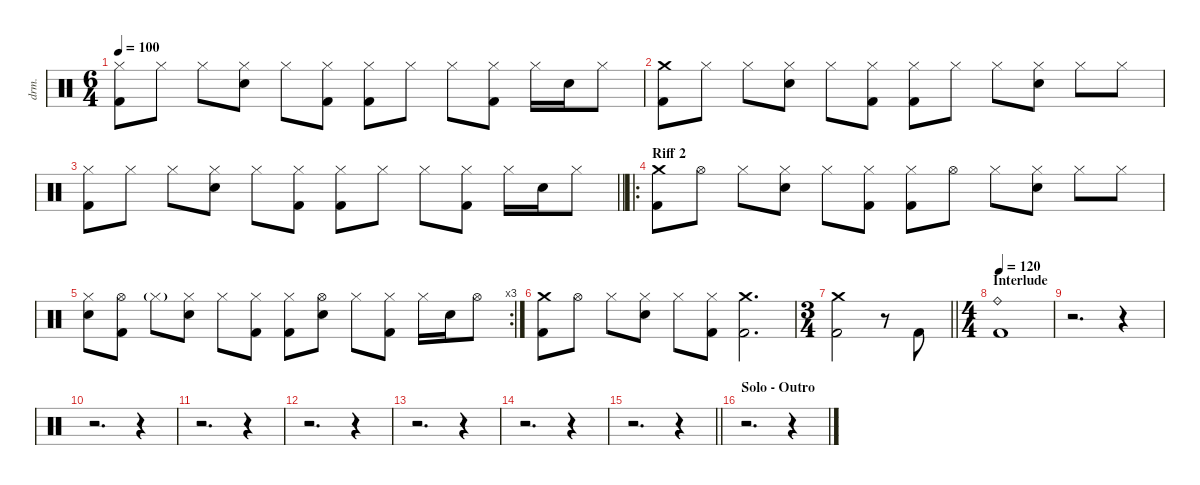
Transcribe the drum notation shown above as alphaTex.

\defaultSystemsLayout 4
\hideDynamics
\bracketExtendMode nobrackets
\otherSystemsTrackNameOrientation horizontal
\track ("Percussions" "drm.") {instrument percussion}
\staff {score}
\articulation defaults
\ts (6 4)
\tempo 100
\clef neutral
\ks c
("Hi-Hat (closed)" "Kick (hit) 2").8{dy f beam Down} "Hi-Hat (closed)".8{beam Down} "Hi-Hat (closed)".8{beam Down} ("Snare (hit) 2" "Hi-Hat (closed)").8{beam Down} "Hi-Hat (closed)".8{beam Down} ("Hi-Hat (closed)" "Kick (hit) 2").8{beam Down} ("Hi-Hat (closed)" "Kick (hit) 2").8{beam Down} "Hi-Hat (closed)".8{beam Down} "Hi-Hat (closed)".8{beam Down} ("Hi-Hat (closed)" "Kick (hit) 2").8{beam Down} "Hi-Hat (closed)".16{beam Down} "Snare (hit) 2".16{beam Down} "Hi-Hat (closed)".8{beam Down} |
("Crash medium (hit)" "Kick (hit) 2").8{beam Down} "Hi-Hat (closed)".8{beam Down} "Hi-Hat (closed)".8{beam Down} ("Snare (hit) 2" "Hi-Hat (closed)").8{beam Down} "Hi-Hat (closed)".8{beam Down} ("Hi-Hat (closed)" "Kick (hit) 2").8{beam Down} ("Hi-Hat (closed)" "Kick (hit) 2").8{beam Down} "Hi-Hat (closed)".8{beam Down} "Hi-Hat (closed)".8{beam Down} ("Snare (hit) 2" "Hi-Hat (closed)").8{beam Down} "Hi-Hat (closed)".8{beam Down} "Hi-Hat (closed)".8{beam Down} |
\barLineRight lightlight
("Hi-Hat (closed)" "Kick (hit) 2").8{beam Down} "Hi-Hat (closed)".8{beam Down} "Hi-Hat (closed)".8{beam Down} ("Snare (hit) 2" "Hi-Hat (closed)").8{beam Down} "Hi-Hat (closed)".8{beam Down} ("Hi-Hat (closed)" "Kick (hit) 2").8{beam Down} ("Hi-Hat (closed)" "Kick (hit) 2").8{beam Down} "Hi-Hat (closed)".8{beam Down} "Hi-Hat (closed)".8{beam Down} ("Hi-Hat (closed)" "Kick (hit) 2").8{beam Down} "Hi-Hat (closed)".16{beam Down} "Snare (hit) 2".16{beam Down} "Hi-Hat (closed)".8{beam Down} |
\ro
\section ("" "Riff 2")
("Crash medium (hit)" "Kick (hit) 2").8{beam Down} "Hi-Hat (open)".8{beam Down} "Hi-Hat (closed)".8{beam Down} ("Snare (hit) 2" "Hi-Hat (closed)").8{beam Down} "Hi-Hat (closed)".8{beam Down} ("Hi-Hat (closed)" "Kick (hit) 2").8{beam Down} ("Hi-Hat (closed)" "Kick (hit) 2").8{beam Down} "Hi-Hat (open)".8{beam Down} "Hi-Hat (closed)".8{beam Down} ("Snare (hit) 2" "Hi-Hat (closed)").8{beam Down} "Hi-Hat (closed)".8{beam Down} "Hi-Hat (closed)".8{beam Down} |
\rc 3
("Snare (hit) 2" "Hi-Hat (closed)").8{beam Down} ("Kick (hit) 2" "Hi-Hat (open)").8{beam Down} "Hi-Hat (closed)"{g}.8{dy mf beam Down} ("Snare (hit) 2" "Hi-Hat (closed)").8{dy f beam Down} "Hi-Hat (closed)".8{beam Down} ("Kick (hit) 2" "Hi-Hat (closed)").8{beam Down} ("Kick (hit) 2" "Hi-Hat (closed)").8{beam Down} ("Snare (hit) 2" "Hi-Hat (open)").8{beam Down} "Hi-Hat (closed)".8{beam Down} ("Kick (hit) 2" "Hi-Hat (closed)").8{beam Down} "Hi-Hat (closed)".16{beam Down} "Snare (hit) 2".16{beam Down} "Hi-Hat (open)".8{beam Down} |
("Crash medium (hit)" "Kick (hit) 2").8{beam Down} "Hi-Hat (open)".8{beam Down} "Hi-Hat (closed)".8{beam Down} ("Snare (hit) 2" "Hi-Hat (closed)").8{beam Down} "Hi-Hat (closed)".8{beam Down} ("Hi-Hat (closed)" "Kick (hit) 2").8{beam Down} ("Crash medium (hit)" "Kick (hit) 2").2{d beam Down} |
\ts (3 4)
\beaming (8 2 2 2)
\barLineRight lightlight
("Crash medium (hit)" "Kick (hit) 2").2{beam Down} r.8{beam Down} "Kick (hit) 2".8{beam Up} |
\ts (4 4)
\beaming (8 2 2 2 2)
\section ("" "Interlude")
\tempo 120
("Ride (bell)" "Kick (hit) 2").1{beam Down} |
r.2{d beam Down} r.4{beam Down} |
r.2{d beam Down} r.4{beam Down} |
r.2{d beam Down} r.4{beam Down} |
r.2{d beam Down} r.4{beam Down} |
r.2{d beam Down} r.4{beam Down} |
r.2{d beam Down} r.4{beam Down} |
\barLineRight lightlight
r.2{d beam Down} r.4{beam Down} |
\section ("" "Solo - Outro")
r.2{d beam Down} r.4{beam Down}
